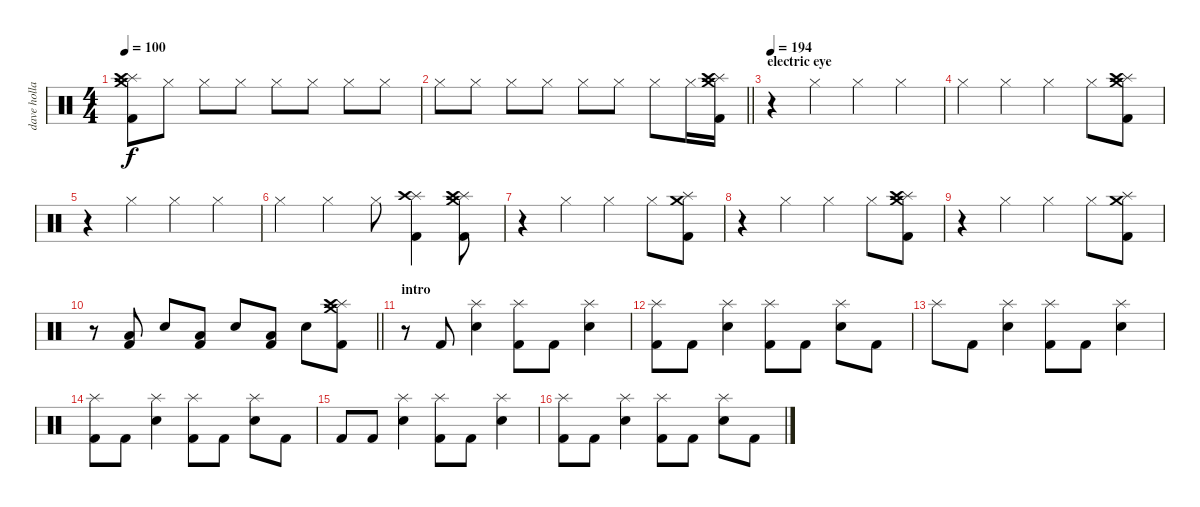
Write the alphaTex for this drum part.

\track ("dave holland" "dave holla") {instrument percussion}
\staff {score}
\articulation defaults
\ts (4 4)
\tempo 100
\clef neutral
\ks c
("Crash medium (hit)" "Splash (hit)" "Crash high (hit)" "Kick (hit) 2").8{dy f} "Hi-Hat (closed)".8 "Hi-Hat (closed)".8 "Hi-Hat (closed)".8 "Hi-Hat (closed)".8 "Hi-Hat (closed)".8 "Hi-Hat (closed)".8 "Hi-Hat (closed)".8 |
\barLineRight lightlight "Hi-Hat (closed)".8 "Hi-Hat (closed)".8 "Hi-Hat (closed)".8 "Hi-Hat (closed)".8 "Hi-Hat (closed)".8 "Hi-Hat (closed)".8 "Hi-Hat (closed)".8 "Hi-Hat (closed)".16
("Crash medium (hit)" "Splash (hit)" "Crash high (hit)" "Kick (hit) 2").16 |
\section ("" "electric eye")
\tempo 194
r.4 "Hi-Hat (closed)".4 "Hi-Hat (closed)".4 "Hi-Hat (closed)".4 |
"Hi-Hat (closed)".4 "Hi-Hat (closed)".4 "Hi-Hat (closed)".4 "Hi-Hat (closed)".8 ("Crash medium (hit)" "Splash (hit)" "Crash high (hit)" "Kick (hit) 2").8 |
r.4 "Hi-Hat (closed)".4 "Hi-Hat (closed)".4 "Hi-Hat (closed)".4 |
"Hi-Hat (closed)".4 "Hi-Hat (closed)".4 "Hi-Hat (closed)".8 ("Splash (hit)" "Crash high (hit)" "Kick (hit) 2").4 ("Crash medium (hit)" "Splash (hit)" "Crash high (hit)" "Kick (hit) 2").8 |
r.4 "Hi-Hat (closed)".4 "Hi-Hat (closed)".4 "Hi-Hat (closed)".8 ("Crash medium (hit)" "Splash (hit)" "Kick (hit) 2").8 |
r.4 "Hi-Hat (closed)".4 "Hi-Hat (closed)".4 "Hi-Hat (closed)".8 ("Crash medium (hit)" "Splash (hit)" "Crash high (hit)" "Kick (hit) 2").8 |
r.4 "Hi-Hat (closed)".4 "Hi-Hat (closed)".4 "Hi-Hat (closed)".8 ("Crash medium (hit)" "Splash (hit)" "Kick (hit) 2").8 |
\barLineRight lightlight
r.8 ("Low Floor Tom (hit)" "Kick (hit) 2").8 "Snare (hit) 2".8 ("Low Floor Tom (hit)" "Kick (hit) 2").8 "Electric Snare (hit)".8 ("Low Floor Tom (hit)" "Kick (hit) 2").8 "Electric Snare (hit)".8 ("Crash medium (hit)" "Splash (hit)" "Crash high (hit)" "Kick (hit) 2").8 |
\section ("" "intro ")
r.8 "Kick (hit) 2".8 ("Splash (hit)" "Electric Snare (hit)").4 ("Splash (hit)" "Kick (hit) 2").8 "Kick (hit) 2".8 ("Splash (hit)" "Electric Snare (hit)").4 |
("Splash (hit)" "Kick (hit) 2").8 "Kick (hit) 2".8 ("Splash (hit)" "Electric Snare (hit)").4 ("Splash (hit)" "Kick (hit) 2").8 "Kick (hit) 2".8 ("Splash (hit)" "Electric Snare (hit)").8 "Kick (hit) 2".8 |
"Splash (hit)".8 "Kick (hit) 2".8 ("Splash (hit)" "Electric Snare (hit)").4 ("Splash (hit)" "Kick (hit) 2").8 "Kick (hit) 2".8 ("Splash (hit)" "Electric Snare (hit)").4 |
("Splash (hit)" "Kick (hit) 2").8 "Kick (hit) 2".8 ("Splash (hit)" "Electric Snare (hit)").4 ("Splash (hit)" "Kick (hit) 2").8 "Kick (hit) 2".8 ("Splash (hit)" "Electric Snare (hit)").8 "Kick (hit) 2".8 |
"Kick (hit) 2".8 "Kick (hit) 2".8 ("Splash (hit)" "Electric Snare (hit)").4 ("Splash (hit)" "Kick (hit) 2").8 "Kick (hit) 2".8 ("Splash (hit)" "Electric Snare (hit)").4 |
("Splash (hit)" "Kick (hit) 2").8 "Kick (hit) 2".8 ("Splash (hit)" "Electric Snare (hit)").4 ("Splash (hit)" "Kick (hit) 2").8 "Kick (hit) 2".8 ("Splash (hit)" "Electric Snare (hit)").8 "Kick (hit) 2".8
